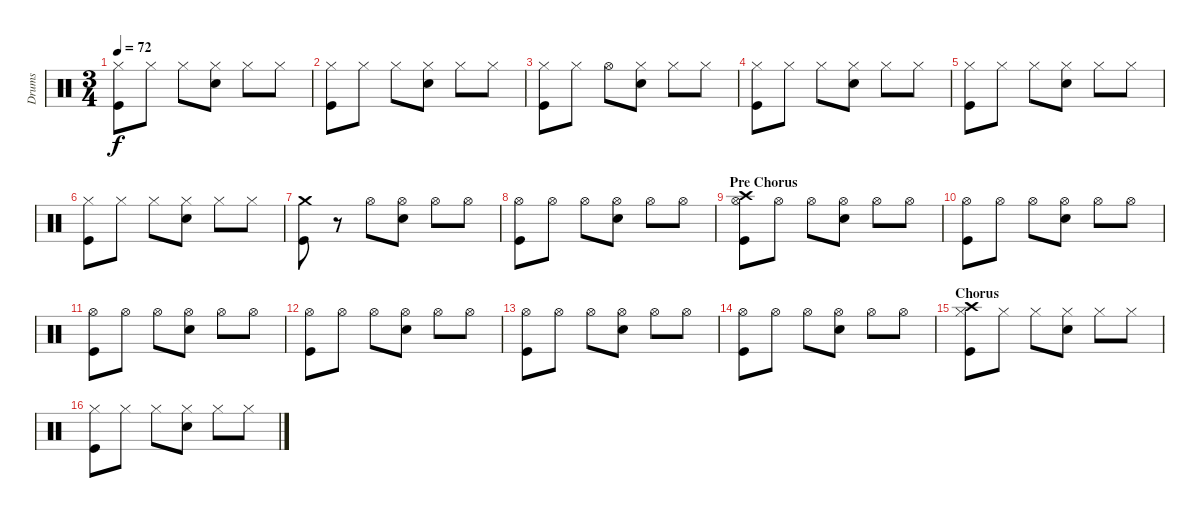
\track ("Drums" "Drums") {instrument percussion}
\staff {score}
\articulation defaults
\ts (3 4)
\tempo 72
\clef neutral
\ks c
("Hi-Hat (closed)" "Kick (hit)").8{dy f} "Hi-Hat (closed)".8 "Hi-Hat (closed)".8 ("Hi-Hat (closed)" "Snare (hit) 2").8 "Hi-Hat (closed)".8 "Hi-Hat (closed)".8 |
("Hi-Hat (closed)" "Kick (hit)").8 "Hi-Hat (closed)".8 "Hi-Hat (closed)".8 ("Hi-Hat (closed)" "Snare (hit) 2").8 "Hi-Hat (closed)".8 "Hi-Hat (closed)".8 |
("Hi-Hat (closed)" "Kick (hit)").8 "Hi-Hat (closed)".8 "Hi-Hat (open)".8 ("Hi-Hat (closed)" "Snare (hit) 2").8 "Hi-Hat (closed)".8 "Hi-Hat (closed)".8 |
("Hi-Hat (closed)" "Kick (hit)").8 "Hi-Hat (closed)".8 "Hi-Hat (closed)".8 ("Hi-Hat (closed)" "Snare (hit) 2").8 "Hi-Hat (closed)".8 "Hi-Hat (closed)".8 |
("Hi-Hat (closed)" "Kick (hit)").8 "Hi-Hat (closed)".8 "Hi-Hat (closed)".8 ("Hi-Hat (closed)" "Snare (hit) 2").8 "Hi-Hat (closed)".8 "Hi-Hat (closed)".8 |
("Hi-Hat (closed)" "Kick (hit)").8 "Hi-Hat (closed)".8 "Hi-Hat (closed)".8 ("Hi-Hat (closed)" "Snare (hit) 2").8 "Hi-Hat (closed)".8 "Hi-Hat (closed)".8 |
("Crash medium (hit)" "Kick (hit)").8 r.8 "Hi-Hat (open)".8 ("Hi-Hat (open)" "Snare (hit) 2").8 "Hi-Hat (open)".8 "Hi-Hat (open)".8 |
("Hi-Hat (open)" "Kick (hit)").8 "Hi-Hat (open)".8 "Hi-Hat (open)".8 ("Hi-Hat (open)" "Snare (hit) 2").8 "Hi-Hat (open)".8 "Hi-Hat (open)".8 |
\section ("" "Pre Chorus")
("Hi-Hat (open)" "Crash high (hit)" "Kick (hit)").8 "Hi-Hat (open)".8 "Hi-Hat (open)".8 ("Hi-Hat (open)" "Snare (hit) 2").8 "Hi-Hat (open)".8 "Hi-Hat (open)".8 |
("Hi-Hat (open)" "Kick (hit)").8 "Hi-Hat (open)".8 "Hi-Hat (open)".8 ("Hi-Hat (open)" "Snare (hit) 2").8 "Hi-Hat (open)".8 "Hi-Hat (open)".8 |
("Hi-Hat (open)" "Kick (hit)").8 "Hi-Hat (open)".8 "Hi-Hat (open)".8 ("Hi-Hat (open)" "Snare (hit) 2").8 "Hi-Hat (open)".8 "Hi-Hat (open)".8 |
("Hi-Hat (open)" "Kick (hit)").8 "Hi-Hat (open)".8 "Hi-Hat (open)".8 ("Hi-Hat (open)" "Snare (hit) 2").8 "Hi-Hat (open)".8 "Hi-Hat (open)".8 |
("Hi-Hat (open)" "Kick (hit)").8 "Hi-Hat (open)".8 "Hi-Hat (open)".8 ("Hi-Hat (open)" "Snare (hit) 2").8 "Hi-Hat (open)".8 "Hi-Hat (open)".8 |
("Hi-Hat (open)" "Kick (hit)").8 "Hi-Hat (open)".8 "Hi-Hat (open)".8 ("Hi-Hat (open)" "Snare (hit) 2").8 "Hi-Hat (open)".8 "Hi-Hat (open)".8 |
\section ("" "Chorus")
("Hi-Hat (closed)" "Crash high (hit)" "Kick (hit)").8 "Hi-Hat (closed)".8 "Hi-Hat (closed)".8 ("Hi-Hat (closed)" "Snare (hit) 2").8 "Hi-Hat (closed)".8 "Hi-Hat (closed)".8 |
("Hi-Hat (closed)" "Kick (hit)").8 "Hi-Hat (closed)".8 "Hi-Hat (closed)".8 ("Hi-Hat (closed)" "Snare (hit) 2").8 "Hi-Hat (closed)".8 "Hi-Hat (closed)".8
